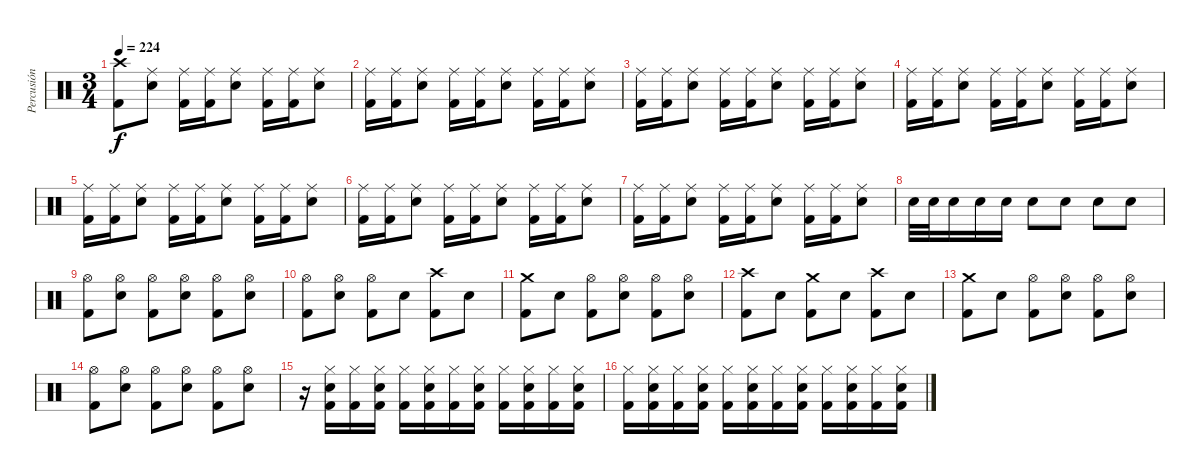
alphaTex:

\track ("Percusión" "Percusión") {instrument percussion}
\staff {score}
\articulation defaults
\ts (3 4)
\tempo 224
\clef neutral
\ks c
("Crash high (hit)" "Kick (hit) 2").8{dy f} ("Ride (middle)" "Electric Snare (hit)").8 ("Ride (middle)" "Kick (hit) 2").16 ("Ride (middle)" "Kick (hit) 2").16 ("Ride (middle)" "Electric Snare (hit)").8 ("Ride (middle)" "Kick (hit) 2").16 ("Ride (middle)" "Kick (hit) 2").16 ("Ride (middle)" "Electric Snare (hit)").8 |
("Ride (middle)" "Kick (hit) 2").16 ("Ride (middle)" "Kick (hit) 2").16 ("Ride (middle)" "Electric Snare (hit)").8 ("Ride (middle)" "Kick (hit) 2").16 ("Ride (middle)" "Kick (hit) 2").16 ("Ride (middle)" "Electric Snare (hit)").8 ("Ride (middle)" "Kick (hit) 2").16 ("Ride (middle)" "Kick (hit) 2").16 ("Ride (middle)" "Electric Snare (hit)").8 |
("Ride (middle)" "Kick (hit) 2").16 ("Ride (middle)" "Kick (hit) 2").16 ("Ride (middle)" "Electric Snare (hit)").8 ("Ride (middle)" "Kick (hit) 2").16 ("Ride (middle)" "Kick (hit) 2").16 ("Ride (middle)" "Electric Snare (hit)").8 ("Ride (middle)" "Kick (hit) 2").16 ("Ride (middle)" "Kick (hit) 2").16 ("Ride (middle)" "Electric Snare (hit)").8 |
("Ride (middle)" "Kick (hit) 2").16 ("Ride (middle)" "Kick (hit) 2").16 ("Ride (middle)" "Electric Snare (hit)").8 ("Ride (middle)" "Kick (hit) 2").16 ("Ride (middle)" "Kick (hit) 2").16 ("Ride (middle)" "Electric Snare (hit)").8 ("Ride (middle)" "Kick (hit) 2").16 ("Ride (middle)" "Kick (hit) 2").16 ("Ride (middle)" "Electric Snare (hit)").8 |
("Ride (middle)" "Kick (hit) 2").16 ("Ride (middle)" "Kick (hit) 2").16 ("Ride (middle)" "Electric Snare (hit)").8 ("Ride (middle)" "Kick (hit) 2").16 ("Ride (middle)" "Kick (hit) 2").16 ("Ride (middle)" "Electric Snare (hit)").8 ("Ride (middle)" "Kick (hit) 2").16 ("Ride (middle)" "Kick (hit) 2").16 ("Ride (middle)" "Electric Snare (hit)").8 |
("Ride (middle)" "Kick (hit) 2").16 ("Ride (middle)" "Kick (hit) 2").16 ("Ride (middle)" "Electric Snare (hit)").8 ("Ride (middle)" "Kick (hit) 2").16 ("Ride (middle)" "Kick (hit) 2").16 ("Ride (middle)" "Electric Snare (hit)").8 ("Ride (middle)" "Kick (hit) 2").16 ("Ride (middle)" "Kick (hit) 2").16 ("Ride (middle)" "Electric Snare (hit)").8 |
("Ride (middle)" "Kick (hit) 2").16 ("Ride (middle)" "Kick (hit) 2").16 ("Ride (middle)" "Electric Snare (hit)").8 ("Ride (middle)" "Kick (hit) 2").16 ("Ride (middle)" "Kick (hit) 2").16 ("Ride (middle)" "Electric Snare (hit)").8 ("Ride (middle)" "Kick (hit) 2").16 ("Ride (middle)" "Kick (hit) 2").16 ("Ride (middle)" "Electric Snare (hit)").8 |
"Electric Snare (hit)".32 "Electric Snare (hit)".32 "Electric Snare (hit)".16 "Electric Snare (hit)".16 "Electric Snare (hit)".16 "Electric Snare (hit)".8 "Electric Snare (hit)".8 "Electric Snare (hit)".8 "Electric Snare (hit)".8 |
("Hi-Hat (open)" "Kick (hit) 2").8 ("Hi-Hat (open)" "Electric Snare (hit)").8 ("Hi-Hat (open)" "Kick (hit) 2").8 ("Hi-Hat (open)" "Electric Snare (hit)").8 ("Hi-Hat (open)" "Kick (hit) 2").8 ("Hi-Hat (open)" "Electric Snare (hit)").8 |
("Hi-Hat (open)" "Kick (hit) 2").8 ("Hi-Hat (open)" "Electric Snare (hit)").8 ("Hi-Hat (open)" "Kick (hit) 2").8 "Electric Snare (hit)".8 ("Crash high (hit)" "Kick (hit) 2").8 "Electric Snare (hit)".8 |
("Crash medium (hit)" "Kick (hit) 2").8 "Electric Snare (hit)".8 ("Hi-Hat (open)" "Kick (hit) 2").8 ("Hi-Hat (open)" "Electric Snare (hit)").8 ("Hi-Hat (open)" "Kick (hit) 2").8 ("Hi-Hat (open)" "Electric Snare (hit)").8 |
("Crash high (hit)" "Kick (hit) 2").8 "Electric Snare (hit)".8 ("Crash medium (hit)" "Kick (hit) 2").8 "Electric Snare (hit)".8 ("Crash high (hit)" "Kick (hit) 2").8 "Electric Snare (hit)".8 |
("Crash medium (hit)" "Kick (hit) 2").8 "Electric Snare (hit)".8 ("Hi-Hat (open)" "Kick (hit) 2").8 ("Hi-Hat (open)" "Electric Snare (hit)").8 ("Hi-Hat (open)" "Kick (hit) 2").8 ("Hi-Hat (open)" "Electric Snare (hit)").8 |
("Hi-Hat (open)" "Kick (hit) 2").8 ("Hi-Hat (open)" "Electric Snare (hit)").8 ("Hi-Hat (open)" "Kick (hit) 2").8 ("Hi-Hat (open)" "Electric Snare (hit)").8 ("Hi-Hat (open)" "Kick (hit) 2").8 ("Hi-Hat (open)" "Electric Snare (hit)").8 |
r.16 ("Hi-Hat (closed)" "Electric Snare (hit)" "Kick (hit) 2").16 ("Hi-Hat (closed)" "Kick (hit) 2").16 ("Hi-Hat (closed)" "Electric Snare (hit)" "Kick (hit) 2").16 ("Hi-Hat (closed)" "Kick (hit) 2").16 ("Hi-Hat (closed)" "Electric Snare (hit)" "Kick (hit) 2").16 ("Hi-Hat (closed)" "Kick (hit) 2").16 ("Hi-Hat (closed)" "Electric Snare (hit)" "Kick (hit) 2").16 ("Hi-Hat (closed)" "Kick (hit) 2").16 ("Hi-Hat (closed)" "Electric Snare (hit)" "Kick (hit) 2").16 ("Hi-Hat (closed)" "Kick (hit) 2").16 ("Hi-Hat (closed)" "Electric Snare (hit)" "Kick (hit) 2").16 |
("Hi-Hat (closed)" "Kick (hit) 2").16 ("Hi-Hat (closed)" "Electric Snare (hit)" "Kick (hit) 2").16 ("Hi-Hat (closed)" "Kick (hit) 2").16 ("Hi-Hat (closed)" "Electric Snare (hit)" "Kick (hit) 2").16 ("Hi-Hat (closed)" "Kick (hit) 2").16 ("Hi-Hat (closed)" "Electric Snare (hit)" "Kick (hit) 2").16 ("Hi-Hat (closed)" "Kick (hit) 2").16 ("Hi-Hat (closed)" "Electric Snare (hit)" "Kick (hit) 2").16 ("Hi-Hat (closed)" "Kick (hit) 2").16 ("Hi-Hat (closed)" "Electric Snare (hit)" "Kick (hit) 2").16 ("Hi-Hat (closed)" "Kick (hit) 2").16 ("Hi-Hat (closed)" "Electric Snare (hit)" "Kick (hit) 2").16
